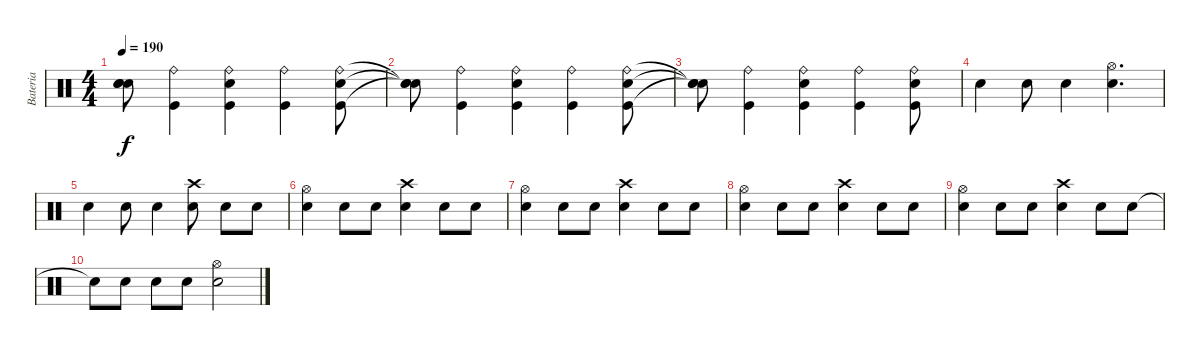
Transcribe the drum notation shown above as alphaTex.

\track ("Bateria" "Bateria") {instrument percussion}
\staff {score}
\articulation defaults
\ts (4 4)
\tempo 190
\clef neutral
\ks c
("Snare (hit)"{t} "Snare (hit)"{t} "Snare (hit)"{t}).8{dy f} ("Kick (hit)" "Ride (bell)").4 ("Kick (hit)" "Snare (hit) 2" "Ride (bell)").4 ("Kick (hit)" "Ride (bell)").4 ("Kick (hit)" "Snare (hit) 2" "Ride (bell)").8 |
("Snare (hit)"{t} "Snare (hit)"{t} "Snare (hit)"{t}).8 ("Kick (hit)" "Ride (bell)").4 ("Kick (hit)" "Snare (hit) 2" "Ride (bell)").4 ("Kick (hit)" "Ride (bell)").4 ("Kick (hit)" "Snare (hit) 2" "Ride (bell)").8 |
("Snare (hit)"{t} "Snare (hit)"{t} "Snare (hit)"{t}).8 ("Kick (hit)" "Ride (bell)").4 ("Kick (hit)" "Snare (hit) 2" "Ride (bell)").4 ("Kick (hit)" "Ride (bell)").4 ("Kick (hit)" "Snare (hit) 2" "Ride (bell)").8 |
"Snare (hit) 2".4 "Snare (hit) 2".8 "Snare (hit) 2".4 ("Snare (hit) 2" "Hi-Hat (open)").4{d} |
"Snare (hit) 2".4 "Snare (hit) 2".8 "Snare (hit) 2".4 ("Snare (hit) 2" "Crash high (hit)").8 "Snare (hit) 2".8 "Snare (hit) 2".8 |
("Snare (hit) 2" "Hi-Hat (open)").4 "Snare (hit) 2".8 "Snare (hit) 2".8 ("Snare (hit) 2" "Crash high (hit)").4 "Snare (hit) 2".8 "Snare (hit) 2".8 |
("Snare (hit) 2" "Hi-Hat (open)").4 "Snare (hit) 2".8 "Snare (hit) 2".8 ("Snare (hit) 2" "Crash high (hit)").4 "Snare (hit) 2".8 "Snare (hit) 2".8 |
("Snare (hit) 2" "Hi-Hat (open)").4 "Snare (hit) 2".8 "Snare (hit) 2".8 ("Snare (hit) 2" "Crash high (hit)").4 "Snare (hit) 2".8 "Snare (hit) 2".8 |
("Snare (hit) 2" "Hi-Hat (open)").4 "Snare (hit) 2".8 "Snare (hit) 2".8 ("Snare (hit) 2" "Crash high (hit)").4 "Snare (hit) 2".8 "Snare (hit) 2".8 |
"Snare (hit)"{t}.8 "Snare (hit) 2".8 "Snare (hit) 2".8 "Snare (hit) 2".8 ("Snare (hit) 2" "Hi-Hat (open)").2
